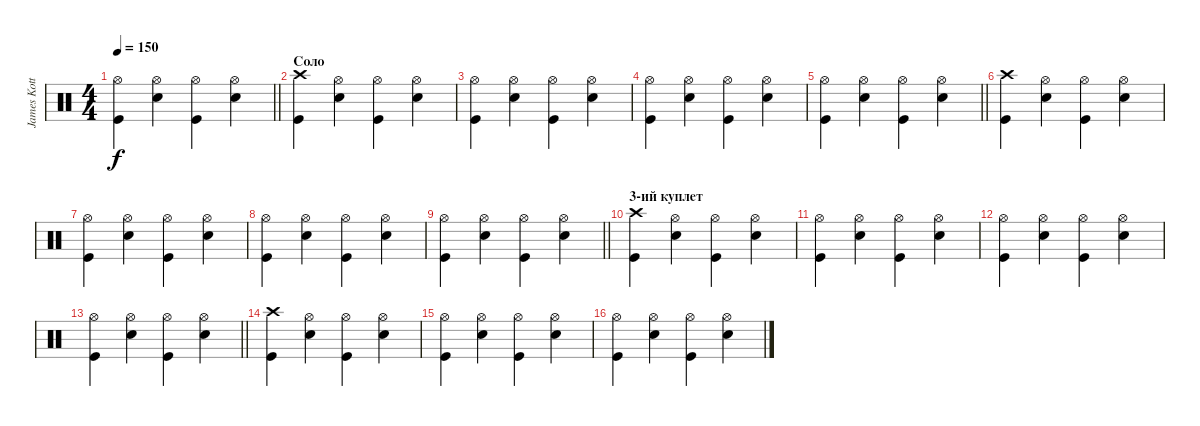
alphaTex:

\track ("James Kottak" "James Kott") {instrument percussion}
\staff {score}
\articulation defaults
\ts (4 4)
\tempo 150
\clef neutral
\barLineRight lightlight
\ks c
("Hi-Hat (open)" "Kick (hit)").4{dy f} ("Hi-Hat (open)" "Snare (hit) 2").4 ("Hi-Hat (open)" "Kick (hit)").4 ("Hi-Hat (open)" "Snare (hit) 2").4 |
\section ("" "Соло")
("Crash high (hit)" "Kick (hit)").4 ("Hi-Hat (open)" "Snare (hit) 2").4 ("Hi-Hat (open)" "Kick (hit)").4 ("Hi-Hat (open)" "Snare (hit) 2").4 |
("Hi-Hat (open)" "Kick (hit)").4 ("Hi-Hat (open)" "Snare (hit) 2").4 ("Hi-Hat (open)" "Kick (hit)").4 ("Hi-Hat (open)" "Snare (hit) 2").4 |
("Hi-Hat (open)" "Kick (hit)").4 ("Hi-Hat (open)" "Snare (hit) 2").4 ("Hi-Hat (open)" "Kick (hit)").4 ("Hi-Hat (open)" "Snare (hit) 2").4 |
\barLineRight lightlight
("Hi-Hat (open)" "Kick (hit)").4 ("Hi-Hat (open)" "Snare (hit) 2").4 ("Hi-Hat (open)" "Kick (hit)").4 ("Hi-Hat (open)" "Snare (hit) 2").4 |
("Crash high (hit)" "Kick (hit)").4 ("Hi-Hat (open)" "Snare (hit) 2").4 ("Hi-Hat (open)" "Kick (hit)").4 ("Hi-Hat (open)" "Snare (hit) 2").4 |
("Hi-Hat (open)" "Kick (hit)").4 ("Hi-Hat (open)" "Snare (hit) 2").4 ("Hi-Hat (open)" "Kick (hit)").4 ("Hi-Hat (open)" "Snare (hit) 2").4 |
("Hi-Hat (open)" "Kick (hit)").4 ("Hi-Hat (open)" "Snare (hit) 2").4 ("Hi-Hat (open)" "Kick (hit)").4 ("Hi-Hat (open)" "Snare (hit) 2").4 |
\barLineRight lightlight
("Hi-Hat (open)" "Kick (hit)").4 ("Hi-Hat (open)" "Snare (hit) 2").4 ("Hi-Hat (open)" "Kick (hit)").4 ("Hi-Hat (open)" "Snare (hit) 2").4 |
\section ("" "3-ий куплет")
("Crash high (hit)" "Kick (hit)").4 ("Hi-Hat (open)" "Snare (hit) 2").4 ("Hi-Hat (open)" "Kick (hit)").4 ("Hi-Hat (open)" "Snare (hit) 2").4 |
("Hi-Hat (open)" "Kick (hit)").4 ("Hi-Hat (open)" "Snare (hit) 2").4 ("Hi-Hat (open)" "Kick (hit)").4 ("Hi-Hat (open)" "Snare (hit) 2").4 |
("Hi-Hat (open)" "Kick (hit)").4 ("Hi-Hat (open)" "Snare (hit) 2").4 ("Hi-Hat (open)" "Kick (hit)").4 ("Hi-Hat (open)" "Snare (hit) 2").4 |
\barLineRight lightlight
("Hi-Hat (open)" "Kick (hit)").4 ("Hi-Hat (open)" "Snare (hit) 2").4 ("Hi-Hat (open)" "Kick (hit)").4 ("Hi-Hat (open)" "Snare (hit) 2").4 |
("Crash high (hit)" "Kick (hit)").4 ("Hi-Hat (open)" "Snare (hit) 2").4 ("Hi-Hat (open)" "Kick (hit)").4 ("Hi-Hat (open)" "Snare (hit) 2").4 |
("Hi-Hat (open)" "Kick (hit)").4 ("Hi-Hat (open)" "Snare (hit) 2").4 ("Hi-Hat (open)" "Kick (hit)").4 ("Hi-Hat (open)" "Snare (hit) 2").4 |
("Hi-Hat (open)" "Kick (hit)").4 ("Hi-Hat (open)" "Snare (hit) 2").4 ("Hi-Hat (open)" "Kick (hit)").4 ("Hi-Hat (open)" "Snare (hit) 2").4
